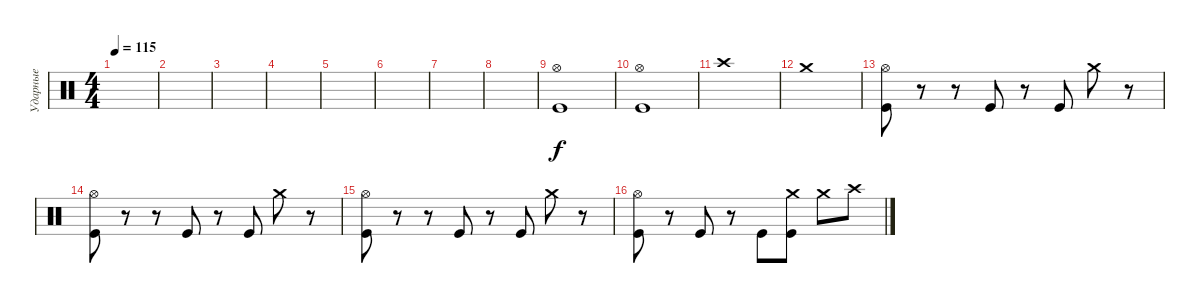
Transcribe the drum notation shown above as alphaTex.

\track ("Ударные" "Ударные") {instrument percussion}
\staff {score}
\articulation defaults
\ts (4 4)
\tempo 115
\clef neutral
\ks c
|
|
|
|
|
|
|
|
("Hi-Hat (open)" "Kick (hit)").1 |
("Hi-Hat (open)" "Kick (hit)").1 |
"Crash high (hit)".1 |
"Crash medium (hit)".1 |
("Hi-Hat (open)" "Kick (hit)").8 r.8 r.8 "Kick (hit)".8 r.8 "Kick (hit)".8 "Crash medium (hit)".8 r.8 |
("Hi-Hat (open)" "Kick (hit)").8 r.8 r.8 "Kick (hit)".8 r.8 "Kick (hit)".8 "Crash medium (hit)".8 r.8 |
("Hi-Hat (open)" "Kick (hit)").8 r.8 r.8 "Kick (hit)".8 r.8 "Kick (hit)".8 "Crash medium (hit)".8 r.8 |
("Hi-Hat (open)" "Kick (hit)").8 r.8 "Kick (hit)".8 r.8 "Kick (hit)".8 ("Crash medium (hit)" "Kick (hit)").8 "Crash medium (hit)".8 "Crash high (hit)".8
